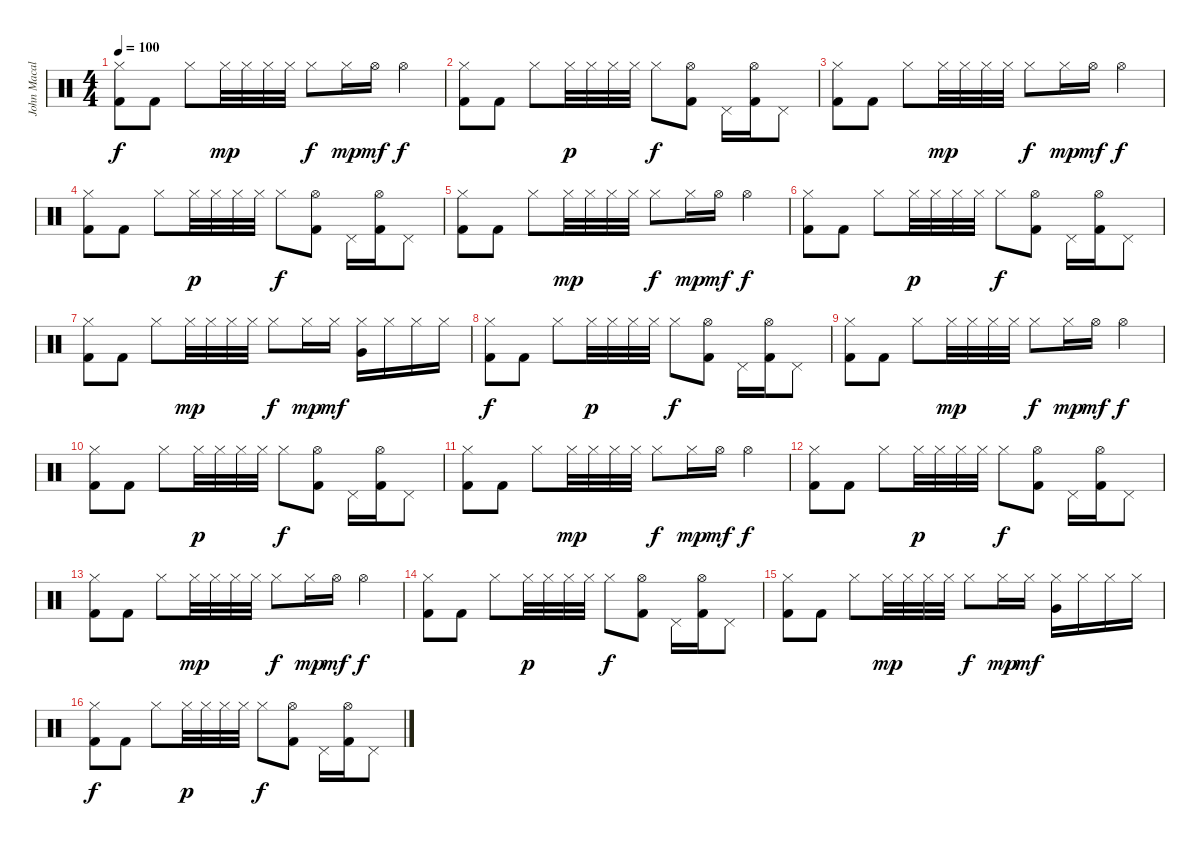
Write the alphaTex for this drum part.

\track ("John Macaluso" "John Macal") {instrument percussion}
\staff {score}
\articulation defaults
\ts (4 4)
\tempo 100
\clef neutral
\ks c
("Hi-Hat (closed)" "Kick (hit) 2").8{dy f} "Kick (hit) 2".8 "Hi-Hat (closed)".8 "Hi-Hat (closed)".32{dy mp} "Hi-Hat (closed)".32 "Hi-Hat (closed)".32 "Hi-Hat (closed)".32 "Hi-Hat (closed)".8{dy f} "Hi-Hat (closed)".16{dy mp} "Hi-Hat (open)".16{dy mf} "Hi-Hat (open)".4{dy f} |
("Hi-Hat (closed)" "Kick (hit) 2").8 "Kick (hit) 2".8 "Hi-Hat (closed)".8 "Hi-Hat (closed)".32{dy p} "Hi-Hat (closed)".32 "Hi-Hat (closed)".32 "Hi-Hat (closed)".32 "Hi-Hat (closed)".8{dy f} ("Hi-Hat (open)" "Kick (hit) 2").8 "Pedal Hi-Hat (hit)".16 ("Hi-Hat (open)" "Kick (hit) 2").16 "Pedal Hi-Hat (hit)".8 |
("Hi-Hat (closed)" "Kick (hit) 2").8 "Kick (hit) 2".8 "Hi-Hat (closed)".8 "Hi-Hat (closed)".32{dy mp} "Hi-Hat (closed)".32 "Hi-Hat (closed)".32 "Hi-Hat (closed)".32 "Hi-Hat (closed)".8{dy f} "Hi-Hat (closed)".16{dy mp} "Hi-Hat (open)".16{dy mf} "Hi-Hat (open)".4{dy f} |
("Hi-Hat (closed)" "Kick (hit) 2").8 "Kick (hit) 2".8 "Hi-Hat (closed)".8 "Hi-Hat (closed)".32{dy p} "Hi-Hat (closed)".32 "Hi-Hat (closed)".32 "Hi-Hat (closed)".32 "Hi-Hat (closed)".8{dy f} ("Hi-Hat (open)" "Kick (hit) 2").8 "Pedal Hi-Hat (hit)".16 ("Hi-Hat (open)" "Kick (hit) 2").16 "Pedal Hi-Hat (hit)".8 |
("Hi-Hat (closed)" "Kick (hit) 2").8 "Kick (hit) 2".8 "Hi-Hat (closed)".8 "Hi-Hat (closed)".32{dy mp} "Hi-Hat (closed)".32 "Hi-Hat (closed)".32 "Hi-Hat (closed)".32 "Hi-Hat (closed)".8{dy f} "Hi-Hat (closed)".16{dy mp} "Hi-Hat (open)".16{dy mf} "Hi-Hat (open)".4{dy f} |
("Hi-Hat (closed)" "Kick (hit) 2").8 "Kick (hit) 2".8 "Hi-Hat (closed)".8 "Hi-Hat (closed)".32{dy p} "Hi-Hat (closed)".32 "Hi-Hat (closed)".32 "Hi-Hat (closed)".32 "Hi-Hat (closed)".8{dy f} ("Hi-Hat (open)" "Kick (hit) 2").8 "Pedal Hi-Hat (hit)".16 ("Hi-Hat (open)" "Kick (hit) 2").16 "Pedal Hi-Hat (hit)".8 |
("Hi-Hat (closed)" "Kick (hit) 2").8 "Kick (hit) 2".8 "Hi-Hat (closed)".8 "Hi-Hat (closed)".32{dy mp} "Hi-Hat (closed)".32 "Hi-Hat (closed)".32 "Hi-Hat (closed)".32 "Hi-Hat (closed)".8{dy f} "Hi-Hat (closed)".16{dy mp} "Hi-Hat (closed)".16{dy mf} ("Hi-Hat (closed)" "Very Low Tom (hit)").16 "Hi-Hat (closed)".16 "Hi-Hat (closed)".16 "Hi-Hat (closed)".16 |
("Hi-Hat (closed)" "Kick (hit) 2").8{dy f} "Kick (hit) 2".8 "Hi-Hat (closed)".8 "Hi-Hat (closed)".32{dy p} "Hi-Hat (closed)".32 "Hi-Hat (closed)".32 "Hi-Hat (closed)".32 "Hi-Hat (closed)".8{dy f} ("Hi-Hat (open)" "Kick (hit) 2").8 "Pedal Hi-Hat (hit)".16 ("Hi-Hat (open)" "Kick (hit) 2").16 "Pedal Hi-Hat (hit)".8 |
("Hi-Hat (closed)" "Kick (hit) 2").8 "Kick (hit) 2".8 "Hi-Hat (closed)".8 "Hi-Hat (closed)".32{dy mp} "Hi-Hat (closed)".32 "Hi-Hat (closed)".32 "Hi-Hat (closed)".32 "Hi-Hat (closed)".8{dy f} "Hi-Hat (closed)".16{dy mp} "Hi-Hat (open)".16{dy mf} "Hi-Hat (open)".4{dy f} |
("Hi-Hat (closed)" "Kick (hit) 2").8 "Kick (hit) 2".8 "Hi-Hat (closed)".8 "Hi-Hat (closed)".32{dy p} "Hi-Hat (closed)".32 "Hi-Hat (closed)".32 "Hi-Hat (closed)".32 "Hi-Hat (closed)".8{dy f} ("Hi-Hat (open)" "Kick (hit) 2").8 "Pedal Hi-Hat (hit)".16 ("Hi-Hat (open)" "Kick (hit) 2").16 "Pedal Hi-Hat (hit)".8 |
("Hi-Hat (closed)" "Kick (hit) 2").8 "Kick (hit) 2".8 "Hi-Hat (closed)".8 "Hi-Hat (closed)".32{dy mp} "Hi-Hat (closed)".32 "Hi-Hat (closed)".32 "Hi-Hat (closed)".32 "Hi-Hat (closed)".8{dy f} "Hi-Hat (closed)".16{dy mp} "Hi-Hat (open)".16{dy mf} "Hi-Hat (open)".4{dy f} |
("Hi-Hat (closed)" "Kick (hit) 2").8 "Kick (hit) 2".8 "Hi-Hat (closed)".8 "Hi-Hat (closed)".32{dy p} "Hi-Hat (closed)".32 "Hi-Hat (closed)".32 "Hi-Hat (closed)".32 "Hi-Hat (closed)".8{dy f} ("Hi-Hat (open)" "Kick (hit) 2").8 "Pedal Hi-Hat (hit)".16 ("Hi-Hat (open)" "Kick (hit) 2").16 "Pedal Hi-Hat (hit)".8 |
("Hi-Hat (closed)" "Kick (hit) 2").8 "Kick (hit) 2".8 "Hi-Hat (closed)".8 "Hi-Hat (closed)".32{dy mp} "Hi-Hat (closed)".32 "Hi-Hat (closed)".32 "Hi-Hat (closed)".32 "Hi-Hat (closed)".8{dy f} "Hi-Hat (closed)".16{dy mp} "Hi-Hat (open)".16{dy mf} "Hi-Hat (open)".4{dy f} |
("Hi-Hat (closed)" "Kick (hit) 2").8 "Kick (hit) 2".8 "Hi-Hat (closed)".8 "Hi-Hat (closed)".32{dy p} "Hi-Hat (closed)".32 "Hi-Hat (closed)".32 "Hi-Hat (closed)".32 "Hi-Hat (closed)".8{dy f} ("Hi-Hat (open)" "Kick (hit) 2").8 "Pedal Hi-Hat (hit)".16 ("Hi-Hat (open)" "Kick (hit) 2").16 "Pedal Hi-Hat (hit)".8 |
("Hi-Hat (closed)" "Kick (hit) 2").8 "Kick (hit) 2".8 "Hi-Hat (closed)".8 "Hi-Hat (closed)".32{dy mp} "Hi-Hat (closed)".32 "Hi-Hat (closed)".32 "Hi-Hat (closed)".32 "Hi-Hat (closed)".8{dy f} "Hi-Hat (closed)".16{dy mp} "Hi-Hat (closed)".16{dy mf} ("Hi-Hat (closed)" "Very Low Tom (hit)").16 "Hi-Hat (closed)".16 "Hi-Hat (closed)".16 "Hi-Hat (closed)".16 |
("Hi-Hat (closed)" "Kick (hit) 2").8{dy f} "Kick (hit) 2".8 "Hi-Hat (closed)".8 "Hi-Hat (closed)".32{dy p} "Hi-Hat (closed)".32 "Hi-Hat (closed)".32 "Hi-Hat (closed)".32 "Hi-Hat (closed)".8{dy f} ("Hi-Hat (open)" "Kick (hit) 2").8 "Pedal Hi-Hat (hit)".16 ("Hi-Hat (open)" "Kick (hit) 2").16 "Pedal Hi-Hat (hit)".8
